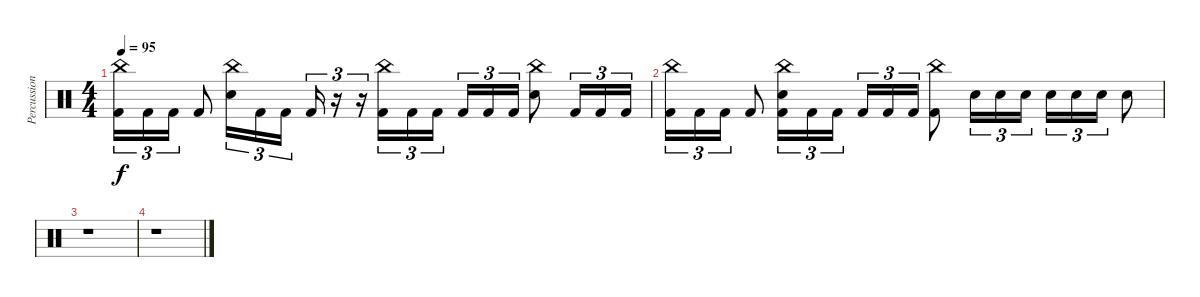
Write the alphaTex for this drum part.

\track ("Percussion" "Percussion") {instrument percussion}
\staff {score}
\articulation defaults
\ts (4 4)
\tempo 95
\clef neutral
\ks c
("China (hit)" "Kick (hit) 2").16{tu (3 2) dy f} "Kick (hit) 2".16{tu (3 2)} "Kick (hit) 2".16{tu (3 2)} "Kick (hit) 2".8 ("China (hit)" "Electric Snare (hit)").16{tu (3 2)} "Kick (hit) 2".16{tu (3 2)} "Kick (hit) 2".16{tu (3 2) beam splitsecondary} "Kick (hit) 2".16{tu (3 2)} r.16{tu (3 2)} r.16{tu (3 2)} ("China (hit)" "Kick (hit) 2").16{tu (3 2)} "Kick (hit) 2".16{tu (3 2)} "Kick (hit) 2".16{tu (3 2) beam splitsecondary} "Kick (hit) 2".16{tu (3 2)} "Kick (hit) 2".16{tu (3 2)} "Kick (hit) 2".16{tu (3 2)} ("China (hit)" "Electric Snare (hit)").8 "Kick (hit) 2".16{tu (3 2)} "Kick (hit) 2".16{tu (3 2)} "Kick (hit) 2".16{tu (3 2)} |
("China (hit)" "Kick (hit) 2").16{tu (3 2)} "Kick (hit) 2".16{tu (3 2)} "Kick (hit) 2".16{tu (3 2)} "Kick (hit) 2".8 ("China (hit)" "Electric Snare (hit)" "Kick (hit) 2").16{tu (3 2)} "Kick (hit) 2".16{tu (3 2)} "Kick (hit) 2".16{tu (3 2) beam splitsecondary} "Kick (hit) 2".16{tu (3 2)} "Kick (hit) 2".16{tu (3 2)} "Kick (hit) 2".16{tu (3 2)} ("China (hit)" "Kick (hit) 2").8 "Electric Snare (hit)".16{tu (3 2)} "Electric Snare (hit)".16{tu (3 2)} "Electric Snare (hit)".16{tu (3 2)} "Electric Snare (hit)".16{tu (3 2)} "Electric Snare (hit)".16{tu (3 2)} "Electric Snare (hit)".16{tu (3 2)} "Electric Snare (hit)".8 |
r.1 |
r.1
